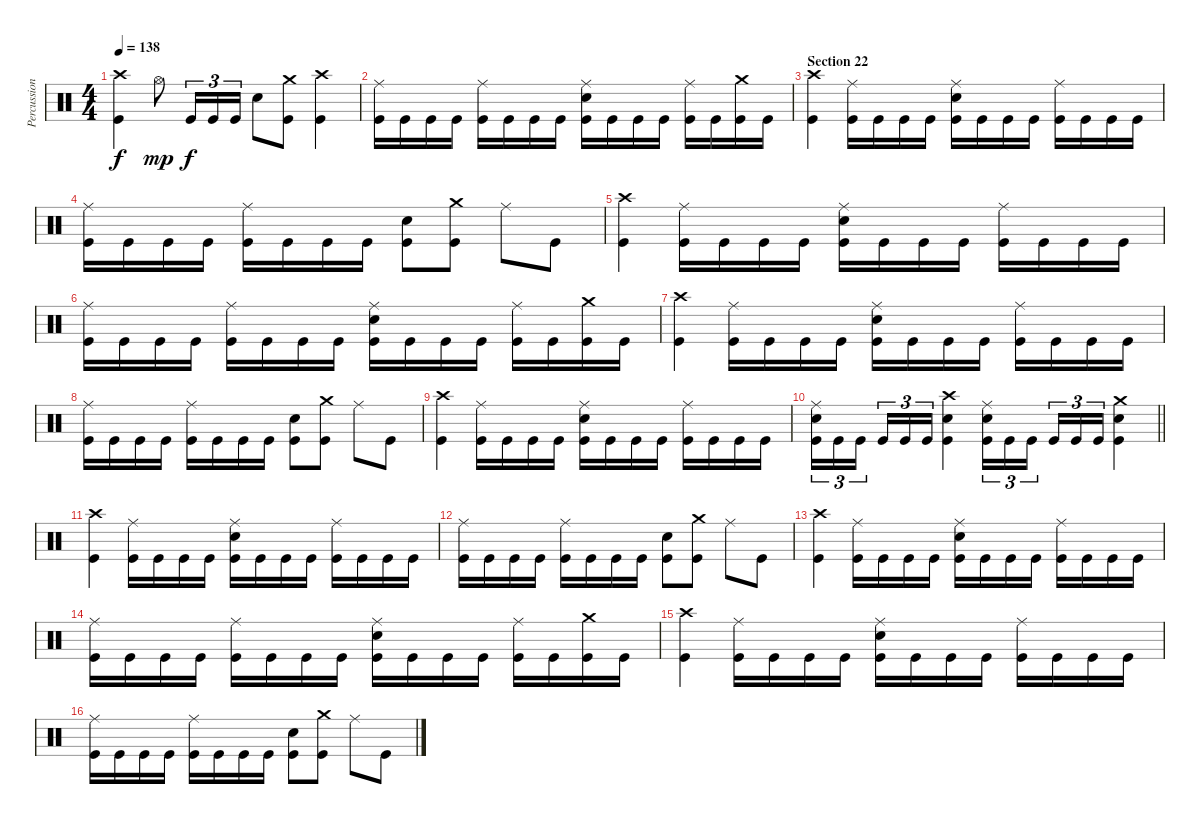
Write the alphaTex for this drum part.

\track ("Percussion" "Percussion") {instrument percussion}
\staff {score}
\articulation defaults
\ts (4 4)
\tempo 138
\clef neutral
\ks c
("Crash high (hit)" "Kick (hit)").4{dy f} "Hi-Hat (open)".8{dy mp} "Kick (hit)".16{tu (3 2) dy f} "Kick (hit)".16{tu (3 2)} "Kick (hit)".16{tu (3 2)} "Electric Snare (hit)".8 ("Crash medium (hit)" "Kick (hit)").8 ("Crash high (hit)" "Kick (hit)").4 |
("Ride (middle)" "Kick (hit)").16 "Kick (hit)".16 "Kick (hit)".16 "Kick (hit)".16 ("Ride (middle)" "Kick (hit)").16 "Kick (hit)".16 "Kick (hit)".16 "Kick (hit)".16 ("Ride (middle)" "Electric Snare (hit)" "Kick (hit)").16 "Kick (hit)".16 "Kick (hit)".16 "Kick (hit)".16 ("Ride (middle)" "Kick (hit)").16 "Kick (hit)".16 ("Crash medium (hit)" "Kick (hit)").16 "Kick (hit)".16 |
\section ("" "Section 22")
("Crash high (hit)" "Kick (hit)").4 ("Ride (middle)" "Kick (hit)").16 "Kick (hit)".16 "Kick (hit)".16 "Kick (hit)".16 ("Ride (middle)" "Electric Snare (hit)" "Kick (hit)").16 "Kick (hit)".16 "Kick (hit)".16 "Kick (hit)".16 ("Ride (middle)" "Kick (hit)").16 "Kick (hit)".16 "Kick (hit)".16 "Kick (hit)".16 |
("Ride (middle)" "Kick (hit)").16 "Kick (hit)".16 "Kick (hit)".16 "Kick (hit)".16 ("Ride (middle)" "Kick (hit)").16 "Kick (hit)".16 "Kick (hit)".16 "Kick (hit)".16 ("Electric Snare (hit)" "Kick (hit)").8 ("Crash medium (hit)" "Kick (hit)").8 "Ride (middle)".8 "Kick (hit)".8 |
("Crash high (hit)" "Kick (hit)").4 ("Ride (middle)" "Kick (hit)").16 "Kick (hit)".16 "Kick (hit)".16 "Kick (hit)".16 ("Ride (middle)" "Electric Snare (hit)" "Kick (hit)").16 "Kick (hit)".16 "Kick (hit)".16 "Kick (hit)".16 ("Ride (middle)" "Kick (hit)").16 "Kick (hit)".16 "Kick (hit)".16 "Kick (hit)".16 |
("Ride (middle)" "Kick (hit)").16 "Kick (hit)".16 "Kick (hit)".16 "Kick (hit)".16 ("Ride (middle)" "Kick (hit)").16 "Kick (hit)".16 "Kick (hit)".16 "Kick (hit)".16 ("Ride (middle)" "Electric Snare (hit)" "Kick (hit)").16 "Kick (hit)".16 "Kick (hit)".16 "Kick (hit)".16 ("Ride (middle)" "Kick (hit)").16 "Kick (hit)".16 ("Crash medium (hit)" "Kick (hit)").16 "Kick (hit)".16 |
("Crash high (hit)" "Kick (hit)").4 ("Ride (middle)" "Kick (hit)").16 "Kick (hit)".16 "Kick (hit)".16 "Kick (hit)".16 ("Ride (middle)" "Electric Snare (hit)" "Kick (hit)").16 "Kick (hit)".16 "Kick (hit)".16 "Kick (hit)".16 ("Ride (middle)" "Kick (hit)").16 "Kick (hit)".16 "Kick (hit)".16 "Kick (hit)".16 |
("Ride (middle)" "Kick (hit)").16 "Kick (hit)".16 "Kick (hit)".16 "Kick (hit)".16 ("Ride (middle)" "Kick (hit)").16 "Kick (hit)".16 "Kick (hit)".16 "Kick (hit)".16 ("Electric Snare (hit)" "Kick (hit)").8 ("Crash medium (hit)" "Kick (hit)").8 "Ride (middle)".8 "Kick (hit)".8 |
("Crash high (hit)" "Kick (hit)").4 ("Ride (middle)" "Kick (hit)").16 "Kick (hit)".16 "Kick (hit)".16 "Kick (hit)".16 ("Ride (middle)" "Electric Snare (hit)" "Kick (hit)").16 "Kick (hit)".16 "Kick (hit)".16 "Kick (hit)".16 ("Ride (middle)" "Kick (hit)").16 "Kick (hit)".16 "Kick (hit)".16 "Kick (hit)".16 |
\barLineRight lightlight
("Ride (middle)" "Electric Snare (hit)" "Kick (hit)").16{tu (3 2)} "Kick (hit)".16{tu (3 2)} "Kick (hit)".16{tu (3 2) beam splitsecondary} "Kick (hit)".16{tu (3 2)} "Kick (hit)".16{tu (3 2)} "Kick (hit)".16{tu (3 2)} ("Crash high (hit)" "Electric Snare (hit)" "Kick (hit)").4 ("Ride (middle)" "Electric Snare (hit)" "Kick (hit)").16{tu (3 2)} "Kick (hit)".16{tu (3 2)} "Kick (hit)".16{tu (3 2) beam splitsecondary} "Kick (hit)".16{tu (3 2)} "Kick (hit)".16{tu (3 2)} "Kick (hit)".16{tu (3 2)} ("Crash medium (hit)" "Electric Snare (hit)" "Kick (hit)").4 |
("Crash high (hit)" "Kick (hit)").4 ("Ride (middle)" "Kick (hit)").16 "Kick (hit)".16 "Kick (hit)".16 "Kick (hit)".16 ("Ride (middle)" "Electric Snare (hit)" "Kick (hit)").16 "Kick (hit)".16 "Kick (hit)".16 "Kick (hit)".16 ("Ride (middle)" "Kick (hit)").16 "Kick (hit)".16 "Kick (hit)".16 "Kick (hit)".16 |
("Ride (middle)" "Kick (hit)").16 "Kick (hit)".16 "Kick (hit)".16 "Kick (hit)".16 ("Ride (middle)" "Kick (hit)").16 "Kick (hit)".16 "Kick (hit)".16 "Kick (hit)".16 ("Electric Snare (hit)" "Kick (hit)").8 ("Crash medium (hit)" "Kick (hit)").8 "Ride (middle)".8 "Kick (hit)".8 |
("Crash high (hit)" "Kick (hit)").4 ("Ride (middle)" "Kick (hit)").16 "Kick (hit)".16 "Kick (hit)".16 "Kick (hit)".16 ("Ride (middle)" "Electric Snare (hit)" "Kick (hit)").16 "Kick (hit)".16 "Kick (hit)".16 "Kick (hit)".16 ("Ride (middle)" "Kick (hit)").16 "Kick (hit)".16 "Kick (hit)".16 "Kick (hit)".16 |
("Ride (middle)" "Kick (hit)").16 "Kick (hit)".16 "Kick (hit)".16 "Kick (hit)".16 ("Ride (middle)" "Kick (hit)").16 "Kick (hit)".16 "Kick (hit)".16 "Kick (hit)".16 ("Ride (middle)" "Electric Snare (hit)" "Kick (hit)").16 "Kick (hit)".16 "Kick (hit)".16 "Kick (hit)".16 ("Ride (middle)" "Kick (hit)").16 "Kick (hit)".16 ("Crash medium (hit)" "Kick (hit)").16 "Kick (hit)".16 |
("Crash high (hit)" "Kick (hit)").4 ("Ride (middle)" "Kick (hit)").16 "Kick (hit)".16 "Kick (hit)".16 "Kick (hit)".16 ("Ride (middle)" "Electric Snare (hit)" "Kick (hit)").16 "Kick (hit)".16 "Kick (hit)".16 "Kick (hit)".16 ("Ride (middle)" "Kick (hit)").16 "Kick (hit)".16 "Kick (hit)".16 "Kick (hit)".16 |
("Ride (middle)" "Kick (hit)").16 "Kick (hit)".16 "Kick (hit)".16 "Kick (hit)".16 ("Ride (middle)" "Kick (hit)").16 "Kick (hit)".16 "Kick (hit)".16 "Kick (hit)".16 ("Electric Snare (hit)" "Kick (hit)").8 ("Crash medium (hit)" "Kick (hit)").8 "Ride (middle)".8 "Kick (hit)".8
